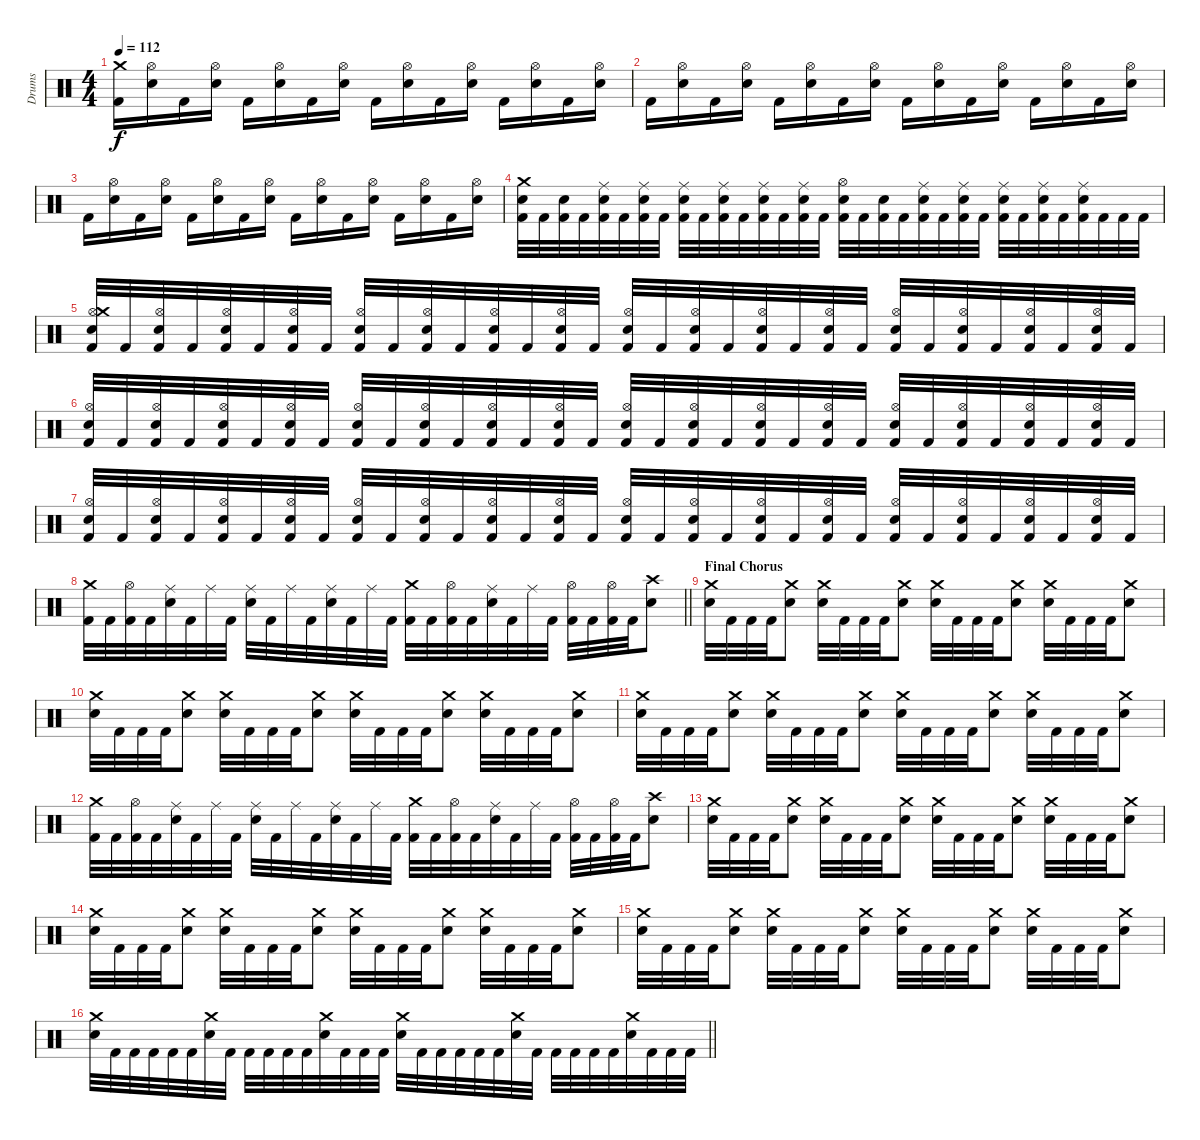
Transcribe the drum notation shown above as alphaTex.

\track ("Drums" "Drums") {instrument percussion}
\staff {score}
\articulation defaults
\ts (4 4)
\tempo 112
\clef neutral
\ks c
("Kick (hit) 2" "Crash medium (hit)").16{dy f} ("Hi-Hat (open)" "Snare (hit) 2").16 "Kick (hit) 2".16 ("Hi-Hat (open)" "Snare (hit) 2").16 "Kick (hit) 2".16 ("Hi-Hat (open)" "Snare (hit) 2").16 "Kick (hit) 2".16 ("Hi-Hat (open)" "Snare (hit) 2").16 "Kick (hit) 2".16 ("Hi-Hat (open)" "Snare (hit) 2").16 "Kick (hit) 2".16 ("Hi-Hat (open)" "Snare (hit) 2").16 "Kick (hit) 2".16 ("Hi-Hat (open)" "Snare (hit) 2").16 "Kick (hit) 2".16 ("Hi-Hat (open)" "Snare (hit) 2").16 |
"Kick (hit) 2".16 ("Hi-Hat (open)" "Snare (hit) 2").16 "Kick (hit) 2".16 ("Hi-Hat (open)" "Snare (hit) 2").16 "Kick (hit) 2".16 ("Hi-Hat (open)" "Snare (hit) 2").16 "Kick (hit) 2".16 ("Hi-Hat (open)" "Snare (hit) 2").16 "Kick (hit) 2".16 ("Hi-Hat (open)" "Snare (hit) 2").16 "Kick (hit) 2".16 ("Hi-Hat (open)" "Snare (hit) 2").16 "Kick (hit) 2".16 ("Hi-Hat (open)" "Snare (hit) 2").16 "Kick (hit) 2".16 ("Hi-Hat (open)" "Snare (hit) 2").16 |
"Kick (hit) 2".16 ("Hi-Hat (open)" "Snare (hit) 2").16 "Kick (hit) 2".16 ("Hi-Hat (open)" "Snare (hit) 2").16 "Kick (hit) 2".16 ("Hi-Hat (open)" "Snare (hit) 2").16 "Kick (hit) 2".16 ("Hi-Hat (open)" "Snare (hit) 2").16 "Kick (hit) 2".16 ("Hi-Hat (open)" "Snare (hit) 2").16 "Kick (hit) 2".16 ("Hi-Hat (open)" "Snare (hit) 2").16 "Kick (hit) 2".16 ("Hi-Hat (open)" "Snare (hit) 2").16 "Kick (hit) 2".16 ("Hi-Hat (open)" "Snare (hit) 2").16 |
("Snare (hit) 2" "Kick (hit) 2" "Crash medium (hit)").32 "Kick (hit) 2".32 ("Snare (hit) 2" "Kick (hit) 2").32 "Kick (hit) 2".32 ("Ride (middle)" "Snare (hit) 2" "Kick (hit) 2").32 "Kick (hit) 2".32 ("Ride (middle)" "Snare (hit) 2" "Kick (hit) 2").32 "Kick (hit) 2".32 ("Ride (middle)" "Snare (hit) 2" "Kick (hit) 2").32 "Kick (hit) 2".32 ("Ride (middle)" "Snare (hit) 2" "Kick (hit) 2").32 "Kick (hit) 2".32 ("Ride (middle)" "Snare (hit) 2" "Kick (hit) 2").32 "Kick (hit) 2".32 ("Ride (middle)" "Snare (hit) 2" "Kick (hit) 2").32 "Kick (hit) 2".32 ("Hi-Hat (open)" "Snare (hit) 2" "Kick (hit) 2").32 "Kick (hit) 2".32 ("Snare (hit) 2" "Kick (hit) 2").32 "Kick (hit) 2".32 ("Ride (middle)" "Snare (hit) 2" "Kick (hit) 2").32 "Kick (hit) 2".32 ("Ride (middle)" "Snare (hit) 2" "Kick (hit) 2").32 "Kick (hit) 2".32 ("Ride (middle)" "Snare (hit) 2" "Kick (hit) 2").32 "Kick (hit) 2".32 ("Ride (middle)" "Snare (hit) 2" "Kick (hit) 2").32 "Kick (hit) 2".32 ("Ride (middle)" "Snare (hit) 2" "Kick (hit) 2").32 "Kick (hit) 2".32 "Kick (hit) 2".32 "Kick (hit) 2".32 |
("Hi-Hat (open)" "Snare (hit) 2" "Kick (hit) 2" "Crash medium (hit)").32 "Kick (hit) 2".32 ("Hi-Hat (open)" "Snare (hit) 2" "Kick (hit) 2").32 "Kick (hit) 2".32 ("Hi-Hat (open)" "Snare (hit) 2" "Kick (hit) 2").32 "Kick (hit) 2".32 ("Hi-Hat (open)" "Snare (hit) 2" "Kick (hit) 2").32 "Kick (hit) 2".32 ("Hi-Hat (open)" "Snare (hit) 2" "Kick (hit) 2").32 "Kick (hit) 2".32 ("Hi-Hat (open)" "Snare (hit) 2" "Kick (hit) 2").32 "Kick (hit) 2".32 ("Hi-Hat (open)" "Snare (hit) 2" "Kick (hit) 2").32 "Kick (hit) 2".32 ("Hi-Hat (open)" "Snare (hit) 2" "Kick (hit) 2").32 "Kick (hit) 2".32 ("Hi-Hat (open)" "Snare (hit) 2" "Kick (hit) 2").32 "Kick (hit) 2".32 ("Hi-Hat (open)" "Snare (hit) 2" "Kick (hit) 2").32 "Kick (hit) 2".32 ("Hi-Hat (open)" "Snare (hit) 2" "Kick (hit) 2").32 "Kick (hit) 2".32 ("Hi-Hat (open)" "Snare (hit) 2" "Kick (hit) 2").32 "Kick (hit) 2".32 ("Hi-Hat (open)" "Snare (hit) 2" "Kick (hit) 2").32 "Kick (hit) 2".32 ("Hi-Hat (open)" "Snare (hit) 2" "Kick (hit) 2").32 "Kick (hit) 2".32 ("Hi-Hat (open)" "Snare (hit) 2" "Kick (hit) 2").32 "Kick (hit) 2".32 ("Hi-Hat (open)" "Snare (hit) 2" "Kick (hit) 2").32 "Kick (hit) 2".32 |
("Hi-Hat (open)" "Snare (hit) 2" "Kick (hit) 2").32 "Kick (hit) 2".32 ("Hi-Hat (open)" "Snare (hit) 2" "Kick (hit) 2").32 "Kick (hit) 2".32 ("Hi-Hat (open)" "Snare (hit) 2" "Kick (hit) 2").32 "Kick (hit) 2".32 ("Hi-Hat (open)" "Snare (hit) 2" "Kick (hit) 2").32 "Kick (hit) 2".32 ("Hi-Hat (open)" "Snare (hit) 2" "Kick (hit) 2").32 "Kick (hit) 2".32 ("Hi-Hat (open)" "Snare (hit) 2" "Kick (hit) 2").32 "Kick (hit) 2".32 ("Hi-Hat (open)" "Snare (hit) 2" "Kick (hit) 2").32 "Kick (hit) 2".32 ("Hi-Hat (open)" "Snare (hit) 2" "Kick (hit) 2").32 "Kick (hit) 2".32 ("Hi-Hat (open)" "Snare (hit) 2" "Kick (hit) 2").32 "Kick (hit) 2".32 ("Hi-Hat (open)" "Snare (hit) 2" "Kick (hit) 2").32 "Kick (hit) 2".32 ("Hi-Hat (open)" "Snare (hit) 2" "Kick (hit) 2").32 "Kick (hit) 2".32 ("Hi-Hat (open)" "Snare (hit) 2" "Kick (hit) 2").32 "Kick (hit) 2".32 ("Hi-Hat (open)" "Snare (hit) 2" "Kick (hit) 2").32 "Kick (hit) 2".32 ("Hi-Hat (open)" "Snare (hit) 2" "Kick (hit) 2").32 "Kick (hit) 2".32 ("Hi-Hat (open)" "Snare (hit) 2" "Kick (hit) 2").32 "Kick (hit) 2".32 ("Hi-Hat (open)" "Snare (hit) 2" "Kick (hit) 2").32 "Kick (hit) 2".32 |
("Hi-Hat (open)" "Snare (hit) 2" "Kick (hit) 2").32 "Kick (hit) 2".32 ("Hi-Hat (open)" "Snare (hit) 2" "Kick (hit) 2").32 "Kick (hit) 2".32 ("Hi-Hat (open)" "Snare (hit) 2" "Kick (hit) 2").32 "Kick (hit) 2".32 ("Hi-Hat (open)" "Snare (hit) 2" "Kick (hit) 2").32 "Kick (hit) 2".32 ("Hi-Hat (open)" "Snare (hit) 2" "Kick (hit) 2").32 "Kick (hit) 2".32 ("Hi-Hat (open)" "Snare (hit) 2" "Kick (hit) 2").32 "Kick (hit) 2".32 ("Hi-Hat (open)" "Snare (hit) 2" "Kick (hit) 2").32 "Kick (hit) 2".32 ("Hi-Hat (open)" "Snare (hit) 2" "Kick (hit) 2").32 "Kick (hit) 2".32 ("Hi-Hat (open)" "Snare (hit) 2" "Kick (hit) 2").32 "Kick (hit) 2".32 ("Hi-Hat (open)" "Snare (hit) 2" "Kick (hit) 2").32 "Kick (hit) 2".32 ("Hi-Hat (open)" "Snare (hit) 2" "Kick (hit) 2").32 "Kick (hit) 2".32 ("Hi-Hat (open)" "Snare (hit) 2" "Kick (hit) 2").32 "Kick (hit) 2".32 ("Hi-Hat (open)" "Snare (hit) 2" "Kick (hit) 2").32 "Kick (hit) 2".32 ("Hi-Hat (open)" "Snare (hit) 2" "Kick (hit) 2").32 "Kick (hit) 2".32 ("Hi-Hat (open)" "Snare (hit) 2" "Kick (hit) 2").32 "Kick (hit) 2".32 ("Hi-Hat (open)" "Snare (hit) 2" "Kick (hit) 2").32 "Kick (hit) 2".32 |
\barLineRight lightlight
("Kick (hit) 2" "Crash medium (hit)").32 "Kick (hit) 2".32 ("Hi-Hat (open)" "Kick (hit) 2").32 "Kick (hit) 2".32 ("Ride (middle)" "Snare (hit) 2").32 "Kick (hit) 2".32 "Ride (middle)".32 "Kick (hit) 2".32 ("Ride (middle)" "Snare (hit) 2").32 "Kick (hit) 2".32 "Ride (middle)".32 "Kick (hit) 2".32 ("Ride (middle)" "Snare (hit) 2").32 "Kick (hit) 2".32 "Ride (middle)".32 "Kick (hit) 2".32 ("Kick (hit) 2" "Crash medium (hit)").32 "Kick (hit) 2".32 ("Hi-Hat (open)" "Kick (hit) 2").32 "Kick (hit) 2".32 ("Ride (middle)" "Snare (hit) 2").32 "Kick (hit) 2".32 "Ride (middle)".32 "Kick (hit) 2".32 ("Hi-Hat (open)" "Kick (hit) 2").32 "Kick (hit) 2".32 ("Hi-Hat (open)" "Kick (hit) 2").32 "Kick (hit) 2".32 ("Snare (hit) 2" "Crash high (hit)").8 |
\section ("" "Final Chorus")
("Snare (hit) 2" "Crash medium (hit)").32 "Kick (hit) 2".32 "Kick (hit) 2".32 "Kick (hit) 2".32 ("Snare (hit) 2" "Crash medium (hit)").8 ("Snare (hit) 2" "Crash medium (hit)").32 "Kick (hit) 2".32 "Kick (hit) 2".32 "Kick (hit) 2".32 ("Snare (hit) 2" "Crash medium (hit)").8 ("Snare (hit) 2" "Crash medium (hit)").32 "Kick (hit) 2".32 "Kick (hit) 2".32 "Kick (hit) 2".32 ("Snare (hit) 2" "Crash medium (hit)").8 ("Snare (hit) 2" "Crash medium (hit)").32 "Kick (hit) 2".32 "Kick (hit) 2".32 "Kick (hit) 2".32 ("Snare (hit) 2" "Crash medium (hit)").8 |
("Snare (hit) 2" "Crash medium (hit)").32 "Kick (hit) 2".32 "Kick (hit) 2".32 "Kick (hit) 2".32 ("Snare (hit) 2" "Crash medium (hit)").8 ("Snare (hit) 2" "Crash medium (hit)").32 "Kick (hit) 2".32 "Kick (hit) 2".32 "Kick (hit) 2".32 ("Snare (hit) 2" "Crash medium (hit)").8 ("Snare (hit) 2" "Crash medium (hit)").32 "Kick (hit) 2".32 "Kick (hit) 2".32 "Kick (hit) 2".32 ("Snare (hit) 2" "Crash medium (hit)").8 ("Snare (hit) 2" "Crash medium (hit)").32 "Kick (hit) 2".32 "Kick (hit) 2".32 "Kick (hit) 2".32 ("Snare (hit) 2" "Crash medium (hit)").8 |
("Snare (hit) 2" "Crash medium (hit)").32 "Kick (hit) 2".32 "Kick (hit) 2".32 "Kick (hit) 2".32 ("Snare (hit) 2" "Crash medium (hit)").8 ("Snare (hit) 2" "Crash medium (hit)").32 "Kick (hit) 2".32 "Kick (hit) 2".32 "Kick (hit) 2".32 ("Snare (hit) 2" "Crash medium (hit)").8 ("Snare (hit) 2" "Crash medium (hit)").32 "Kick (hit) 2".32 "Kick (hit) 2".32 "Kick (hit) 2".32 ("Snare (hit) 2" "Crash medium (hit)").8 ("Snare (hit) 2" "Crash medium (hit)").32 "Kick (hit) 2".32 "Kick (hit) 2".32 "Kick (hit) 2".32 ("Snare (hit) 2" "Crash medium (hit)").8 |
("Kick (hit) 2" "Crash medium (hit)").32 "Kick (hit) 2".32 ("Hi-Hat (open)" "Kick (hit) 2").32 "Kick (hit) 2".32 ("Ride (middle)" "Snare (hit) 2").32 "Kick (hit) 2".32 "Ride (middle)".32 "Kick (hit) 2".32 ("Ride (middle)" "Snare (hit) 2").32 "Kick (hit) 2".32 "Ride (middle)".32 "Kick (hit) 2".32 ("Ride (middle)" "Snare (hit) 2").32 "Kick (hit) 2".32 "Ride (middle)".32 "Kick (hit) 2".32 ("Kick (hit) 2" "Crash medium (hit)").32 "Kick (hit) 2".32 ("Hi-Hat (open)" "Kick (hit) 2").32 "Kick (hit) 2".32 ("Ride (middle)" "Snare (hit) 2").32 "Kick (hit) 2".32 "Ride (middle)".32 "Kick (hit) 2".32 ("Hi-Hat (open)" "Kick (hit) 2").32 "Kick (hit) 2".32 ("Hi-Hat (open)" "Kick (hit) 2").32 "Kick (hit) 2".32 ("Snare (hit) 2" "Crash high (hit)").8 |
("Snare (hit) 2" "Crash medium (hit)").32 "Kick (hit) 2".32 "Kick (hit) 2".32 "Kick (hit) 2".32 ("Snare (hit) 2" "Crash medium (hit)").8 ("Snare (hit) 2" "Crash medium (hit)").32 "Kick (hit) 2".32 "Kick (hit) 2".32 "Kick (hit) 2".32 ("Snare (hit) 2" "Crash medium (hit)").8 ("Snare (hit) 2" "Crash medium (hit)").32 "Kick (hit) 2".32 "Kick (hit) 2".32 "Kick (hit) 2".32 ("Snare (hit) 2" "Crash medium (hit)").8 ("Snare (hit) 2" "Crash medium (hit)").32 "Kick (hit) 2".32 "Kick (hit) 2".32 "Kick (hit) 2".32 ("Snare (hit) 2" "Crash medium (hit)").8 |
("Snare (hit) 2" "Crash medium (hit)").32 "Kick (hit) 2".32 "Kick (hit) 2".32 "Kick (hit) 2".32 ("Snare (hit) 2" "Crash medium (hit)").8 ("Snare (hit) 2" "Crash medium (hit)").32 "Kick (hit) 2".32 "Kick (hit) 2".32 "Kick (hit) 2".32 ("Snare (hit) 2" "Crash medium (hit)").8 ("Snare (hit) 2" "Crash medium (hit)").32 "Kick (hit) 2".32 "Kick (hit) 2".32 "Kick (hit) 2".32 ("Snare (hit) 2" "Crash medium (hit)").8 ("Snare (hit) 2" "Crash medium (hit)").32 "Kick (hit) 2".32 "Kick (hit) 2".32 "Kick (hit) 2".32 ("Snare (hit) 2" "Crash medium (hit)").8 |
("Snare (hit) 2" "Crash medium (hit)").32 "Kick (hit) 2".32 "Kick (hit) 2".32 "Kick (hit) 2".32 ("Snare (hit) 2" "Crash medium (hit)").8 ("Snare (hit) 2" "Crash medium (hit)").32 "Kick (hit) 2".32 "Kick (hit) 2".32 "Kick (hit) 2".32 ("Snare (hit) 2" "Crash medium (hit)").8 ("Snare (hit) 2" "Crash medium (hit)").32 "Kick (hit) 2".32 "Kick (hit) 2".32 "Kick (hit) 2".32 ("Snare (hit) 2" "Crash medium (hit)").8 ("Snare (hit) 2" "Crash medium (hit)").32 "Kick (hit) 2".32 "Kick (hit) 2".32 "Kick (hit) 2".32 ("Snare (hit) 2" "Crash medium (hit)").8 |
\barLineRight lightlight
("Snare (hit) 2" "Crash medium (hit)").32 "Kick (hit) 2".32 "Kick (hit) 2".32 "Kick (hit) 2".32 "Kick (hit) 2".32 "Kick (hit) 2".32 ("Snare (hit) 2" "Crash medium (hit)").32 "Kick (hit) 2".32 "Kick (hit) 2".32 "Kick (hit) 2".32 "Kick (hit) 2".32 "Kick (hit) 2".32 ("Snare (hit) 2" "Crash medium (hit)").32 "Kick (hit) 2".32 "Kick (hit) 2".32 "Kick (hit) 2".32 ("Snare (hit) 2" "Crash medium (hit)").32 "Kick (hit) 2".32 "Kick (hit) 2".32 "Kick (hit) 2".32 "Kick (hit) 2".32 "Kick (hit) 2".32 ("Snare (hit) 2" "Crash medium (hit)").32 "Kick (hit) 2".32 "Kick (hit) 2".32 "Kick (hit) 2".32 "Kick (hit) 2".32 "Kick (hit) 2".32 ("Snare (hit) 2" "Crash medium (hit)").32 "Kick (hit) 2".32 "Kick (hit) 2".32 "Kick (hit) 2".32
